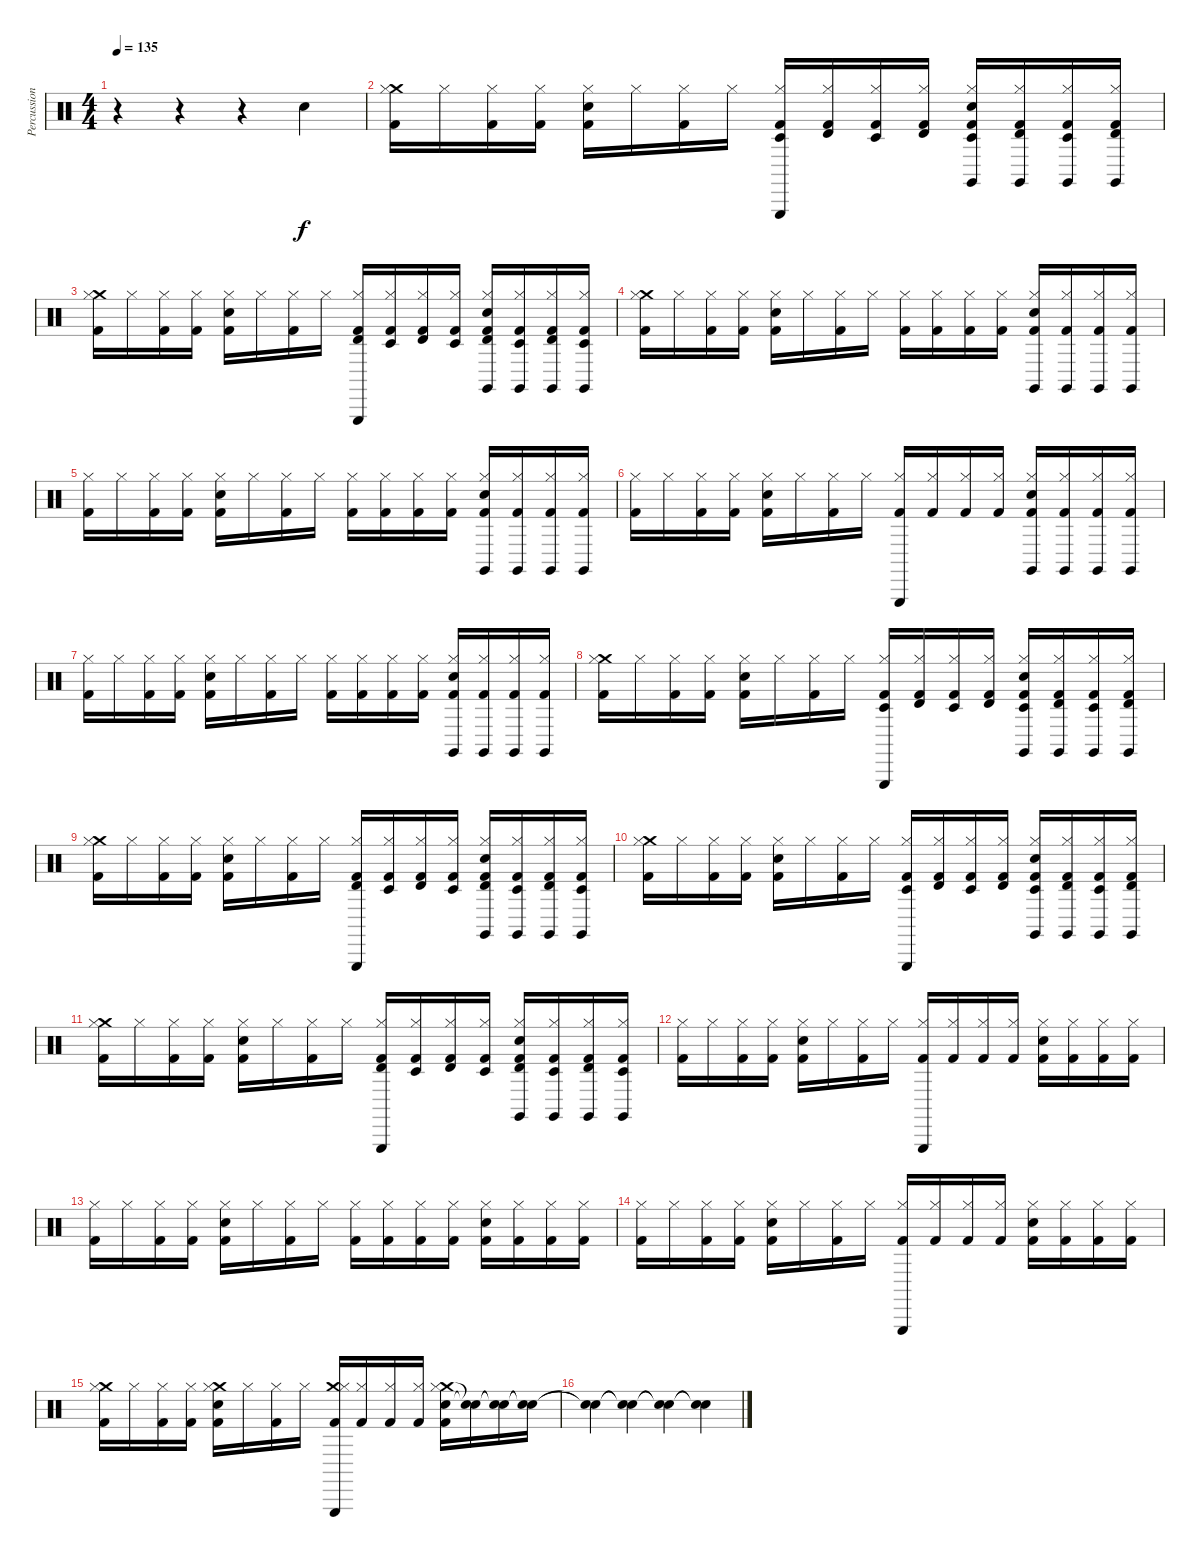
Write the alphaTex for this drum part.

\track ("Percussion" "Percussion") {instrument percussion}
\staff {score}
\articulation defaults
\ts (4 4)
\tempo 135
\clef neutral
\ks c
r.4{dy f} r.4 r.4 "Electric Snare (hit)".4 |
("Crash medium (hit)" "Kick (hit) 2" "Hi-Hat (closed)").16{balance 0} "Hi-Hat (closed)".16 ("Kick (hit) 2" "Hi-Hat (closed)").16{balance 2} ("Kick (hit) 2" "Hi-Hat (closed)").16 ("Electric Snare (hit)" "Kick (hit) 2" "Hi-Hat (closed)").16{balance 4} "Hi-Hat (closed)".16 ("Kick (hit) 2" "Hi-Hat (closed)").16{balance 6} "Hi-Hat (closed)".16 ("Triangle (hit)" "Timbale low (hit)" "Kick (hit) 2" "Hi-Hat (closed)").16{balance 8} ("Timbale high (hit)" "Kick (hit) 2" "Hi-Hat (closed)").16 ("Timbale low (hit)" "Kick (hit) 2" "Hi-Hat (closed)").16{balance 10} ("Timbale high (hit)" "Kick (hit) 2" "Hi-Hat (closed)").16 ("Electric Snare (hit)" "Timbale low (hit)" "Kick (hit) 2" "Claves (hit)" "Hi-Hat (closed)").16{volume 13 balance 12} ("Timbale high (hit)" "Kick (hit) 2" "Claves (hit)" "Hi-Hat (closed)").16 ("Timbale low (hit)" "Kick (hit) 2" "Claves (hit)" "Hi-Hat (closed)").16{balance 14} ("Timbale high (hit)" "Kick (hit) 2" "Claves (hit)" "Hi-Hat (closed)").16 |
("Crash medium (hit)" "Kick (hit) 2" "Hi-Hat (closed)").16{balance 16} "Hi-Hat (closed)".16 ("Kick (hit) 2" "Hi-Hat (closed)").16{balance 14} ("Kick (hit) 2" "Hi-Hat (closed)").16 ("Electric Snare (hit)" "Kick (hit) 2" "Hi-Hat (closed)").16{balance 12} "Hi-Hat (closed)".16 ("Kick (hit) 2" "Hi-Hat (closed)").16{balance 10} "Hi-Hat (closed)".16 ("Triangle (hit)" "Kick (hit) 2" "Timbale high (hit)" "Hi-Hat (closed)").16{balance 8} ("Kick (hit) 2" "Timbale low (hit)" "Hi-Hat (closed)").16 ("Kick (hit) 2" "Timbale high (hit)" "Hi-Hat (closed)").16{balance 6} ("Kick (hit) 2" "Timbale low (hit)" "Hi-Hat (closed)").16 ("Electric Snare (hit)" "Kick (hit) 2" "Timbale high (hit)" "Claves (hit)" "Hi-Hat (closed)").16{balance 4} ("Kick (hit) 2" "Timbale low (hit)" "Claves (hit)" "Hi-Hat (closed)").16 ("Kick (hit) 2" "Timbale high (hit)" "Claves (hit)" "Hi-Hat (closed)").16{balance 2} ("Kick (hit) 2" "Timbale low (hit)" "Claves (hit)" "Hi-Hat (closed)").16 |
("Crash medium (hit)" "Kick (hit) 2" "Hi-Hat (closed)").16{balance 0} "Hi-Hat (closed)".16 ("Kick (hit) 2" "Hi-Hat (closed)").16{balance 2} ("Kick (hit) 2" "Hi-Hat (closed)").16 ("Electric Snare (hit)" "Kick (hit) 2" "Hi-Hat (closed)").16{balance 4} "Hi-Hat (closed)".16 ("Kick (hit) 2" "Hi-Hat (closed)").16{balance 6} "Hi-Hat (closed)".16 ("Kick (hit) 2" "Hi-Hat (closed)").16{balance 8} ("Kick (hit) 2" "Hi-Hat (closed)").16 ("Kick (hit) 2" "Hi-Hat (closed)").16{balance 10} ("Kick (hit) 2" "Hi-Hat (closed)").16 ("Electric Snare (hit)" "Kick (hit) 2" "Claves (hit)" "Hi-Hat (closed)").16{volume 13 balance 12} ("Kick (hit) 2" "Claves (hit)" "Hi-Hat (closed)").16 ("Kick (hit) 2" "Claves (hit)" "Hi-Hat (closed)").16{balance 14} ("Kick (hit) 2" "Claves (hit)" "Hi-Hat (closed)").16 |
("Kick (hit) 2" "Hi-Hat (closed)").16{balance 16} "Hi-Hat (closed)".16 ("Kick (hit) 2" "Hi-Hat (closed)").16{balance 14} ("Kick (hit) 2" "Hi-Hat (closed)").16 ("Electric Snare (hit)" "Kick (hit) 2" "Hi-Hat (closed)").16{balance 12} "Hi-Hat (closed)".16 ("Kick (hit) 2" "Hi-Hat (closed)").16{balance 10} "Hi-Hat (closed)".16 ("Kick (hit) 2" "Hi-Hat (closed)").16{balance 8} ("Kick (hit) 2" "Hi-Hat (closed)").16 ("Kick (hit) 2" "Hi-Hat (closed)").16{balance 6} ("Kick (hit) 2" "Hi-Hat (closed)").16 ("Electric Snare (hit)" "Kick (hit) 2" "Claves (hit)" "Hi-Hat (closed)").16{balance 4} ("Kick (hit) 2" "Claves (hit)" "Hi-Hat (closed)").16 ("Kick (hit) 2" "Claves (hit)" "Hi-Hat (closed)").16{balance 2} ("Kick (hit) 2" "Claves (hit)" "Hi-Hat (closed)").16 |
("Kick (hit) 2" "Hi-Hat (closed)").16{balance 0} "Hi-Hat (closed)".16 ("Kick (hit) 2" "Hi-Hat (closed)").16{balance 2} ("Kick (hit) 2" "Hi-Hat (closed)").16 ("Electric Snare (hit)" "Kick (hit) 2" "Hi-Hat (closed)").16{balance 4} "Hi-Hat (closed)".16 ("Kick (hit) 2" "Hi-Hat (closed)").16{balance 6} "Hi-Hat (closed)".16 ("Triangle (hit)" "Kick (hit) 2" "Hi-Hat (closed)").16{balance 8} ("Kick (hit) 2" "Hi-Hat (closed)").16 ("Kick (hit) 2" "Hi-Hat (closed)").16{balance 10} ("Kick (hit) 2" "Hi-Hat (closed)").16 ("Electric Snare (hit)" "Kick (hit) 2" "Claves (hit)" "Hi-Hat (closed)").16{volume 13 balance 12} ("Kick (hit) 2" "Claves (hit)" "Hi-Hat (closed)").16 ("Kick (hit) 2" "Claves (hit)" "Hi-Hat (closed)").16{balance 14} ("Kick (hit) 2" "Claves (hit)" "Hi-Hat (closed)").16 |
("Kick (hit) 2" "Hi-Hat (closed)").16{balance 16} "Hi-Hat (closed)".16 ("Kick (hit) 2" "Hi-Hat (closed)").16{balance 14} ("Kick (hit) 2" "Hi-Hat (closed)").16 ("Electric Snare (hit)" "Kick (hit) 2" "Hi-Hat (closed)").16{balance 12} "Hi-Hat (closed)".16 ("Kick (hit) 2" "Hi-Hat (closed)").16{balance 10} "Hi-Hat (closed)".16 ("Kick (hit) 2" "Hi-Hat (closed)").16{balance 8} ("Kick (hit) 2" "Hi-Hat (closed)").16 ("Kick (hit) 2" "Hi-Hat (closed)").16{balance 6} ("Kick (hit) 2" "Hi-Hat (closed)").16 ("Electric Snare (hit)" "Kick (hit) 2" "Claves (hit)" "Hi-Hat (closed)").16{balance 4} ("Kick (hit) 2" "Claves (hit)" "Hi-Hat (closed)").16 ("Kick (hit) 2" "Claves (hit)" "Hi-Hat (closed)").16{balance 2} ("Kick (hit) 2" "Claves (hit)" "Hi-Hat (closed)").16 |
("Crash medium (hit)" "Kick (hit) 2" "Hi-Hat (closed)").16{balance 0} "Hi-Hat (closed)".16 ("Kick (hit) 2" "Hi-Hat (closed)").16{balance 2} ("Kick (hit) 2" "Hi-Hat (closed)").16 ("Electric Snare (hit)" "Kick (hit) 2" "Hi-Hat (closed)").16{balance 4} "Hi-Hat (closed)".16 ("Kick (hit) 2" "Hi-Hat (closed)").16{balance 6} "Hi-Hat (closed)".16 ("Triangle (hit)" "Timbale low (hit)" "Kick (hit) 2" "Hi-Hat (closed)").16{balance 8} ("Timbale high (hit)" "Kick (hit) 2" "Hi-Hat (closed)").16 ("Timbale low (hit)" "Kick (hit) 2" "Hi-Hat (closed)").16{balance 10} ("Timbale high (hit)" "Kick (hit) 2" "Hi-Hat (closed)").16 ("Electric Snare (hit)" "Timbale low (hit)" "Kick (hit) 2" "Claves (hit)" "Hi-Hat (closed)").16{volume 13 balance 12} ("Timbale high (hit)" "Kick (hit) 2" "Claves (hit)" "Hi-Hat (closed)").16 ("Timbale low (hit)" "Kick (hit) 2" "Claves (hit)" "Hi-Hat (closed)").16{balance 14} ("Timbale high (hit)" "Kick (hit) 2" "Claves (hit)" "Hi-Hat (closed)").16 |
("Crash medium (hit)" "Kick (hit) 2" "Hi-Hat (closed)").16{balance 16} "Hi-Hat (closed)".16 ("Kick (hit) 2" "Hi-Hat (closed)").16{balance 14} ("Kick (hit) 2" "Hi-Hat (closed)").16 ("Electric Snare (hit)" "Kick (hit) 2" "Hi-Hat (closed)").16{balance 12} "Hi-Hat (closed)".16 ("Kick (hit) 2" "Hi-Hat (closed)").16{balance 10} "Hi-Hat (closed)".16 ("Triangle (hit)" "Kick (hit) 2" "Timbale high (hit)" "Hi-Hat (closed)").16{balance 8} ("Kick (hit) 2" "Timbale low (hit)" "Hi-Hat (closed)").16 ("Kick (hit) 2" "Timbale high (hit)" "Hi-Hat (closed)").16{balance 6} ("Kick (hit) 2" "Timbale low (hit)" "Hi-Hat (closed)").16 ("Electric Snare (hit)" "Kick (hit) 2" "Timbale high (hit)" "Claves (hit)" "Hi-Hat (closed)").16{balance 4} ("Kick (hit) 2" "Timbale low (hit)" "Claves (hit)" "Hi-Hat (closed)").16 ("Kick (hit) 2" "Timbale high (hit)" "Claves (hit)" "Hi-Hat (closed)").16{balance 2} ("Kick (hit) 2" "Timbale low (hit)" "Claves (hit)" "Hi-Hat (closed)").16 |
("Crash medium (hit)" "Kick (hit) 2" "Hi-Hat (closed)").16{balance 0} "Hi-Hat (closed)".16 ("Kick (hit) 2" "Hi-Hat (closed)").16{balance 2} ("Kick (hit) 2" "Hi-Hat (closed)").16 ("Electric Snare (hit)" "Kick (hit) 2" "Hi-Hat (closed)").16{balance 4} "Hi-Hat (closed)".16 ("Kick (hit) 2" "Hi-Hat (closed)").16{balance 6} "Hi-Hat (closed)".16 ("Triangle (hit)" "Timbale low (hit)" "Kick (hit) 2" "Hi-Hat (closed)").16{balance 8} ("Timbale high (hit)" "Kick (hit) 2" "Hi-Hat (closed)").16 ("Timbale low (hit)" "Kick (hit) 2" "Hi-Hat (closed)").16{balance 10} ("Timbale high (hit)" "Kick (hit) 2" "Hi-Hat (closed)").16 ("Electric Snare (hit)" "Timbale low (hit)" "Kick (hit) 2" "Claves (hit)" "Hi-Hat (closed)").16{volume 13 balance 12} ("Timbale high (hit)" "Kick (hit) 2" "Claves (hit)" "Hi-Hat (closed)").16 ("Timbale low (hit)" "Kick (hit) 2" "Claves (hit)" "Hi-Hat (closed)").16{balance 14} ("Timbale high (hit)" "Kick (hit) 2" "Claves (hit)" "Hi-Hat (closed)").16 |
("Crash medium (hit)" "Kick (hit) 2" "Hi-Hat (closed)").16{balance 16} "Hi-Hat (closed)".16 ("Kick (hit) 2" "Hi-Hat (closed)").16{balance 14} ("Kick (hit) 2" "Hi-Hat (closed)").16 ("Electric Snare (hit)" "Kick (hit) 2" "Hi-Hat (closed)").16{balance 12} "Hi-Hat (closed)".16 ("Kick (hit) 2" "Hi-Hat (closed)").16{balance 10} "Hi-Hat (closed)".16 ("Triangle (hit)" "Kick (hit) 2" "Timbale high (hit)" "Hi-Hat (closed)").16{balance 8} ("Kick (hit) 2" "Timbale low (hit)" "Hi-Hat (closed)").16 ("Kick (hit) 2" "Timbale high (hit)" "Hi-Hat (closed)").16{balance 6} ("Kick (hit) 2" "Timbale low (hit)" "Hi-Hat (closed)").16 ("Electric Snare (hit)" "Kick (hit) 2" "Timbale high (hit)" "Claves (hit)" "Hi-Hat (closed)").16{balance 4} ("Kick (hit) 2" "Timbale low (hit)" "Claves (hit)" "Hi-Hat (closed)").16 ("Kick (hit) 2" "Timbale high (hit)" "Claves (hit)" "Hi-Hat (closed)").16{balance 2} ("Kick (hit) 2" "Timbale low (hit)" "Claves (hit)" "Hi-Hat (closed)").16 |
("Kick (hit) 2" "Hi-Hat (closed)").16{balance 0} "Hi-Hat (closed)".16 ("Kick (hit) 2" "Hi-Hat (closed)").16{balance 2} ("Kick (hit) 2" "Hi-Hat (closed)").16 ("Electric Snare (hit)" "Kick (hit) 2" "Hi-Hat (closed)").16{balance 4} "Hi-Hat (closed)".16 ("Kick (hit) 2" "Hi-Hat (closed)").16{balance 6} "Hi-Hat (closed)".16 ("Triangle (hit)" "Kick (hit) 2" "Hi-Hat (closed)").16{balance 8} ("Kick (hit) 2" "Hi-Hat (closed)").16 ("Kick (hit) 2" "Hi-Hat (closed)").16{balance 10} ("Kick (hit) 2" "Hi-Hat (closed)").16 ("Electric Snare (hit)" "Kick (hit) 2" "Hi-Hat (closed)").16{volume 13 balance 12} ("Kick (hit) 2" "Hi-Hat (closed)").16 ("Kick (hit) 2" "Hi-Hat (closed)").16{balance 14} ("Kick (hit) 2" "Hi-Hat (closed)").16 |
("Kick (hit) 2" "Hi-Hat (closed)").16{balance 16} "Hi-Hat (closed)".16 ("Kick (hit) 2" "Hi-Hat (closed)").16{balance 14} ("Kick (hit) 2" "Hi-Hat (closed)").16 ("Electric Snare (hit)" "Kick (hit) 2" "Hi-Hat (closed)").16{balance 12} "Hi-Hat (closed)".16 ("Kick (hit) 2" "Hi-Hat (closed)").16{balance 10} "Hi-Hat (closed)".16 ("Kick (hit) 2" "Hi-Hat (closed)").16{balance 8} ("Kick (hit) 2" "Hi-Hat (closed)").16 ("Kick (hit) 2" "Hi-Hat (closed)").16{balance 6} ("Kick (hit) 2" "Hi-Hat (closed)").16 ("Electric Snare (hit)" "Kick (hit) 2" "Hi-Hat (closed)").16{balance 4} ("Kick (hit) 2" "Hi-Hat (closed)").16 ("Kick (hit) 2" "Hi-Hat (closed)").16{balance 2} ("Kick (hit) 2" "Hi-Hat (closed)").16 |
("Kick (hit) 2" "Hi-Hat (closed)").16{balance 0} "Hi-Hat (closed)".16 ("Kick (hit) 2" "Hi-Hat (closed)").16{balance 2} ("Kick (hit) 2" "Hi-Hat (closed)").16 ("Electric Snare (hit)" "Kick (hit) 2" "Hi-Hat (closed)").16{balance 4} "Hi-Hat (closed)".16 ("Kick (hit) 2" "Hi-Hat (closed)").16{balance 6} "Hi-Hat (closed)".16 ("Triangle (hit)" "Kick (hit) 2" "Hi-Hat (closed)").16{balance 8} ("Kick (hit) 2" "Hi-Hat (closed)").16 ("Kick (hit) 2" "Hi-Hat (closed)").16{balance 10} ("Kick (hit) 2" "Hi-Hat (closed)").16 ("Electric Snare (hit)" "Kick (hit) 2" "Hi-Hat (closed)").16{volume 13 balance 12} ("Kick (hit) 2" "Hi-Hat (closed)").16 ("Kick (hit) 2" "Hi-Hat (closed)").16{balance 14} ("Kick (hit) 2" "Hi-Hat (closed)").16 |
("Crash medium (hit)" "Kick (hit) 2" "Hi-Hat (closed)").16{balance 16} "Hi-Hat (closed)".16 ("Kick (hit) 2" "Hi-Hat (closed)").16{balance 14} ("Kick (hit) 2" "Hi-Hat (closed)").16 ("Crash medium (hit)" "Electric Snare (hit)" "Kick (hit) 2" "Hi-Hat (closed)").16{balance 12} "Hi-Hat (closed)".16 ("Kick (hit) 2" "Hi-Hat (closed)").16{balance 10} "Hi-Hat (closed)".16 ("Crash medium (hit)" "Triangle (hit)" "Kick (hit) 2" "Hi-Hat (closed)").16{balance 8} ("Kick (hit) 2" "Hi-Hat (closed)").16 ("Kick (hit) 2" "Hi-Hat (closed)").16{balance 6} ("Kick (hit) 2" "Hi-Hat (closed)").16 ("Crash medium (hit)" "Electric Snare (hit)" "Kick (hit) 2" "Hi-Hat (closed)").16{balance 4} ("Snare (hit)"{t} "Snare (hit)"{t}).16 ("Snare (hit)"{t} "Snare (hit)"{t}).16{balance 2} ("Snare (hit)"{t} "Snare (hit)"{t}).16 |
("Snare (hit)"{t} "Snare (hit)"{t}).4 ("Snare (hit)"{t} "Snare (hit)"{t}).4 ("Snare (hit)"{t} "Snare (hit)"{t}).4 ("Snare (hit)"{t} "Snare (hit)"{t}).4
